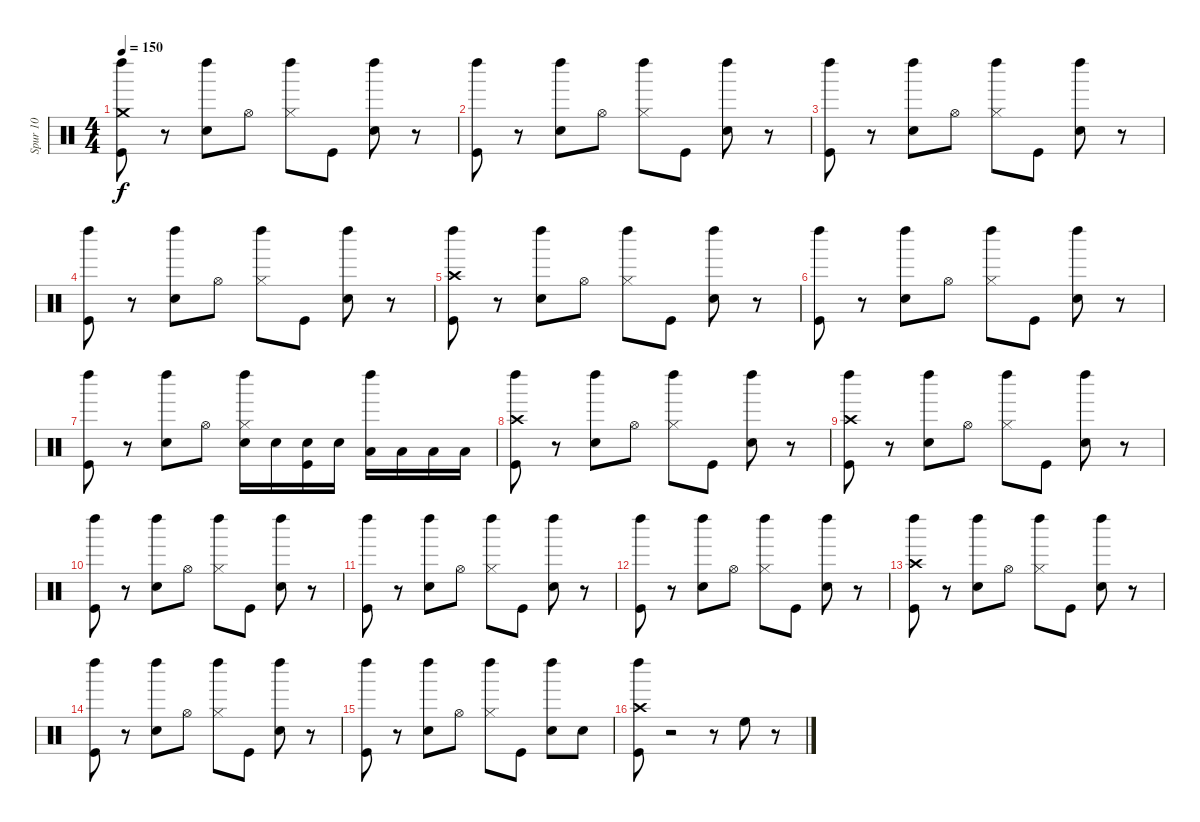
\track ("Spur 10" "Spur 10") {instrument percussion}
\staff {score}
\articulation defaults
\ts (4 4)
\tempo 150
\clef neutral
\ks c
("Crash medium (hit)" "Kick (hit)" "Left Maraca (hit)").8{dy f} r.8 ("Snare (hit) 2" "Left Maraca (hit)").8 "Hi-Hat (open)".8 ("Hi-Hat (closed)" "Left Maraca (hit)").8 "Kick (hit)".8 ("Snare (hit) 2" "Left Maraca (hit)").8 r.8 |
("Kick (hit)" "Left Maraca (hit)").8 r.8 ("Snare (hit) 2" "Left Maraca (hit)").8 "Hi-Hat (open)".8 ("Hi-Hat (closed)" "Left Maraca (hit)").8 "Kick (hit)".8 ("Snare (hit) 2" "Left Maraca (hit)").8 r.8 |
("Kick (hit)" "Left Maraca (hit)").8 r.8 ("Snare (hit) 2" "Left Maraca (hit)").8 "Hi-Hat (open)".8 ("Hi-Hat (closed)" "Left Maraca (hit)").8 "Kick (hit)".8 ("Snare (hit) 2" "Left Maraca (hit)").8 r.8 |
("Kick (hit)" "Left Maraca (hit)").8 r.8 ("Snare (hit) 2" "Left Maraca (hit)").8 "Hi-Hat (open)".8 ("Hi-Hat (closed)" "Left Maraca (hit)").8 "Kick (hit)".8 ("Snare (hit) 2" "Left Maraca (hit)").8 r.8 |
("Crash high (hit)" "Kick (hit)" "Left Maraca (hit)").8 r.8 ("Snare (hit) 2" "Left Maraca (hit)").8 "Hi-Hat (open)".8 ("Hi-Hat (closed)" "Left Maraca (hit)").8 "Kick (hit)".8 ("Snare (hit) 2" "Left Maraca (hit)").8 r.8 |
("Kick (hit)" "Left Maraca (hit)").8 r.8 ("Snare (hit) 2" "Left Maraca (hit)").8 "Hi-Hat (open)".8 ("Hi-Hat (closed)" "Left Maraca (hit)").8 "Kick (hit)".8 ("Snare (hit) 2" "Left Maraca (hit)").8 r.8 |
("Kick (hit)" "Left Maraca (hit)").8 r.8 ("Snare (hit) 2" "Left Maraca (hit)").8 "Hi-Hat (open)".8 ("Electric Snare (hit)" "Hi-Hat (closed)" "Left Maraca (hit)").16 "Electric Snare (hit)".16 ("Electric Snare (hit)" "Kick (hit)").16 "Electric Snare (hit)".16 ("Low Tom (hit)" "Left Maraca (hit)").16 "Low Tom (hit)".16 "Low Tom (hit)".16 "Low Tom (hit)".16 |
("Crash high (hit)" "Kick (hit)" "Left Maraca (hit)").8 r.8 ("Snare (hit) 2" "Left Maraca (hit)").8 "Hi-Hat (open)".8 ("Hi-Hat (closed)" "Left Maraca (hit)").8 "Kick (hit)".8 ("Snare (hit) 2" "Left Maraca (hit)").8 r.8 |
("Crash high (hit)" "Kick (hit)" "Left Maraca (hit)").8 r.8 ("Snare (hit) 2" "Left Maraca (hit)").8 "Hi-Hat (open)".8 ("Hi-Hat (closed)" "Left Maraca (hit)").8 "Kick (hit)".8 ("Snare (hit) 2" "Left Maraca (hit)").8 r.8 |
("Kick (hit)" "Left Maraca (hit)").8 r.8 ("Snare (hit) 2" "Left Maraca (hit)").8 "Hi-Hat (open)".8 ("Hi-Hat (closed)" "Left Maraca (hit)").8 "Kick (hit)".8 ("Snare (hit) 2" "Left Maraca (hit)").8 r.8 |
("Kick (hit)" "Left Maraca (hit)").8 r.8 ("Snare (hit) 2" "Left Maraca (hit)").8 "Hi-Hat (open)".8 ("Hi-Hat (closed)" "Left Maraca (hit)").8 "Kick (hit)".8 ("Snare (hit) 2" "Left Maraca (hit)").8 r.8 |
("Kick (hit)" "Left Maraca (hit)").8 r.8 ("Snare (hit) 2" "Left Maraca (hit)").8 "Hi-Hat (open)".8 ("Hi-Hat (closed)" "Left Maraca (hit)").8 "Kick (hit)".8 ("Snare (hit) 2" "Left Maraca (hit)").8 r.8 |
("Crash high (hit)" "Kick (hit)" "Left Maraca (hit)").8 r.8 ("Snare (hit) 2" "Left Maraca (hit)").8 "Hi-Hat (open)".8 ("Hi-Hat (closed)" "Left Maraca (hit)").8 "Kick (hit)".8 ("Snare (hit) 2" "Left Maraca (hit)").8 r.8 |
("Kick (hit)" "Left Maraca (hit)").8 r.8 ("Snare (hit) 2" "Left Maraca (hit)").8 "Hi-Hat (open)".8 ("Hi-Hat (closed)" "Left Maraca (hit)").8 "Kick (hit)".8 ("Snare (hit) 2" "Left Maraca (hit)").8 r.8 |
("Kick (hit)" "Left Maraca (hit)").8 r.8 ("Snare (hit) 2" "Left Maraca (hit)").8 "Hi-Hat (open)".8 ("Hi-Hat (closed)" "Left Maraca (hit)").8 "Kick (hit)".8 ("Snare (hit) 2" "Left Maraca (hit)").8 "Snare (hit) 2".8 |
("Crash high (hit)" "Kick (hit)" "Left Maraca (hit)").8 r.2 r.8 "High Floor Tom (hit)".8 r.8
